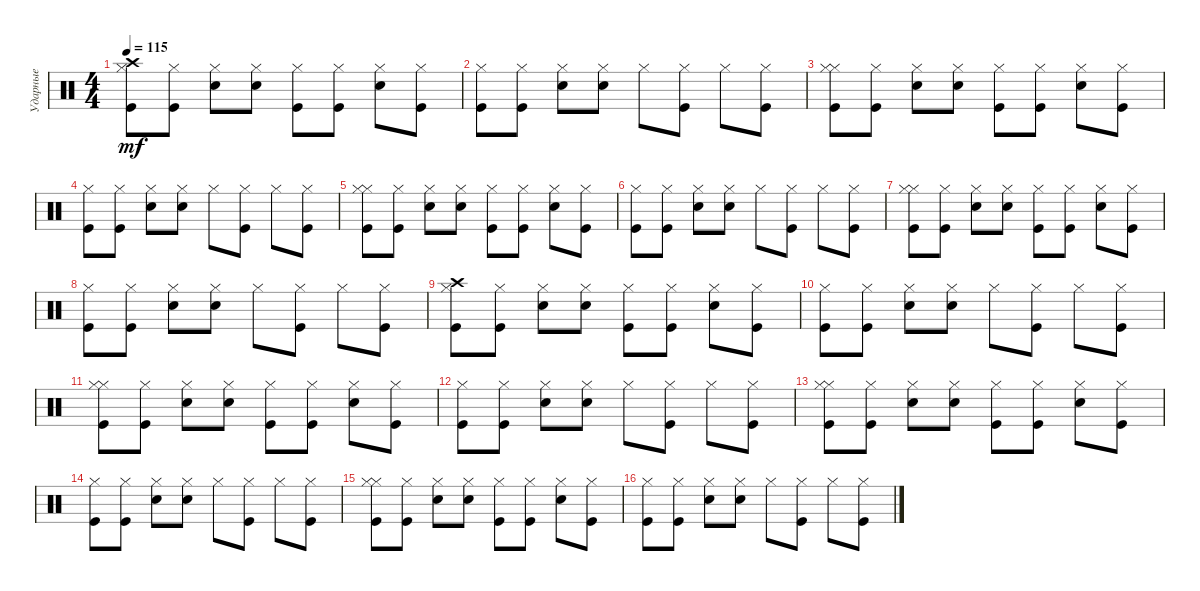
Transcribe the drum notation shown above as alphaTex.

\track ("Ударные" "Ударные") {instrument percussion}
\staff {score}
\articulation defaults
\ts (4 4)
\tempo 115
\clef neutral
\ks c
("Crash high (hit)" "Kick (hit)" "Hi-Hat (closed)").8{dy mf} ("Hi-Hat (closed)" "Kick (hit)").8 ("Snare (hit) 2" "Hi-Hat (closed)").8 ("Snare (hit) 2" "Hi-Hat (closed)").8 ("Hi-Hat (closed)" "Kick (hit)").8 ("Hi-Hat (closed)" "Kick (hit)").8 ("Hi-Hat (closed)" "Snare (hit) 2").8 ("Hi-Hat (closed)" "Kick (hit)").8 |
("Hi-Hat (closed)" "Kick (hit)").8 ("Hi-Hat (closed)" "Kick (hit)").8 ("Snare (hit) 2" "Hi-Hat (closed)").8 ("Snare (hit) 2" "Hi-Hat (closed)").8 "Hi-Hat (closed)".8 ("Hi-Hat (closed)" "Kick (hit)").8 "Hi-Hat (closed)".8 ("Hi-Hat (closed)" "Kick (hit)").8 |
("Hi-Hat (closed)" "Kick (hit)" "Hi-Hat (closed)").8 ("Hi-Hat (closed)" "Kick (hit)").8 ("Snare (hit) 2" "Hi-Hat (closed)").8 ("Snare (hit) 2" "Hi-Hat (closed)").8 ("Hi-Hat (closed)" "Kick (hit)").8 ("Hi-Hat (closed)" "Kick (hit)").8 ("Hi-Hat (closed)" "Snare (hit) 2").8 ("Hi-Hat (closed)" "Kick (hit)").8 |
("Hi-Hat (closed)" "Kick (hit)").8 ("Hi-Hat (closed)" "Kick (hit)").8 ("Snare (hit) 2" "Hi-Hat (closed)").8 ("Snare (hit) 2" "Hi-Hat (closed)").8 "Hi-Hat (closed)".8 ("Hi-Hat (closed)" "Kick (hit)").8 "Hi-Hat (closed)".8 ("Hi-Hat (closed)" "Kick (hit)").8 |
("Hi-Hat (closed)" "Kick (hit)" "Hi-Hat (closed)").8 ("Hi-Hat (closed)" "Kick (hit)").8 ("Snare (hit) 2" "Hi-Hat (closed)").8 ("Snare (hit) 2" "Hi-Hat (closed)").8 ("Hi-Hat (closed)" "Kick (hit)").8 ("Hi-Hat (closed)" "Kick (hit)").8 ("Hi-Hat (closed)" "Snare (hit) 2").8 ("Hi-Hat (closed)" "Kick (hit)").8 |
("Hi-Hat (closed)" "Kick (hit)").8 ("Hi-Hat (closed)" "Kick (hit)").8 ("Snare (hit) 2" "Hi-Hat (closed)").8 ("Snare (hit) 2" "Hi-Hat (closed)").8 "Hi-Hat (closed)".8 ("Hi-Hat (closed)" "Kick (hit)").8 "Hi-Hat (closed)".8 ("Hi-Hat (closed)" "Kick (hit)").8 |
("Hi-Hat (closed)" "Kick (hit)" "Hi-Hat (closed)").8 ("Hi-Hat (closed)" "Kick (hit)").8 ("Snare (hit) 2" "Hi-Hat (closed)").8 ("Snare (hit) 2" "Hi-Hat (closed)").8 ("Hi-Hat (closed)" "Kick (hit)").8 ("Hi-Hat (closed)" "Kick (hit)").8 ("Hi-Hat (closed)" "Snare (hit) 2").8 ("Hi-Hat (closed)" "Kick (hit)").8 |
("Hi-Hat (closed)" "Kick (hit)").8 ("Hi-Hat (closed)" "Kick (hit)").8 ("Snare (hit) 2" "Hi-Hat (closed)").8 ("Snare (hit) 2" "Hi-Hat (closed)").8 "Hi-Hat (closed)".8 ("Hi-Hat (closed)" "Kick (hit)").8 "Hi-Hat (closed)".8 ("Hi-Hat (closed)" "Kick (hit)").8 |
("Crash high (hit)" "Kick (hit)" "Hi-Hat (closed)").8 ("Hi-Hat (closed)" "Kick (hit)").8 ("Snare (hit) 2" "Hi-Hat (closed)").8 ("Snare (hit) 2" "Hi-Hat (closed)").8 ("Hi-Hat (closed)" "Kick (hit)").8 ("Hi-Hat (closed)" "Kick (hit)").8 ("Hi-Hat (closed)" "Snare (hit) 2").8 ("Hi-Hat (closed)" "Kick (hit)").8 |
("Hi-Hat (closed)" "Kick (hit)").8 ("Hi-Hat (closed)" "Kick (hit)").8 ("Snare (hit) 2" "Hi-Hat (closed)").8 ("Snare (hit) 2" "Hi-Hat (closed)").8 "Hi-Hat (closed)".8 ("Hi-Hat (closed)" "Kick (hit)").8 "Hi-Hat (closed)".8 ("Hi-Hat (closed)" "Kick (hit)").8 |
("Hi-Hat (closed)" "Kick (hit)" "Hi-Hat (closed)").8 ("Hi-Hat (closed)" "Kick (hit)").8 ("Snare (hit) 2" "Hi-Hat (closed)").8 ("Snare (hit) 2" "Hi-Hat (closed)").8 ("Hi-Hat (closed)" "Kick (hit)").8 ("Hi-Hat (closed)" "Kick (hit)").8 ("Hi-Hat (closed)" "Snare (hit) 2").8 ("Hi-Hat (closed)" "Kick (hit)").8 |
("Hi-Hat (closed)" "Kick (hit)").8 ("Hi-Hat (closed)" "Kick (hit)").8 ("Snare (hit) 2" "Hi-Hat (closed)").8 ("Snare (hit) 2" "Hi-Hat (closed)").8 "Hi-Hat (closed)".8 ("Hi-Hat (closed)" "Kick (hit)").8 "Hi-Hat (closed)".8 ("Hi-Hat (closed)" "Kick (hit)").8 |
("Hi-Hat (closed)" "Kick (hit)" "Hi-Hat (closed)").8 ("Hi-Hat (closed)" "Kick (hit)").8 ("Snare (hit) 2" "Hi-Hat (closed)").8 ("Snare (hit) 2" "Hi-Hat (closed)").8 ("Hi-Hat (closed)" "Kick (hit)").8 ("Hi-Hat (closed)" "Kick (hit)").8 ("Hi-Hat (closed)" "Snare (hit) 2").8 ("Hi-Hat (closed)" "Kick (hit)").8 |
("Hi-Hat (closed)" "Kick (hit)").8 ("Hi-Hat (closed)" "Kick (hit)").8 ("Snare (hit) 2" "Hi-Hat (closed)").8 ("Snare (hit) 2" "Hi-Hat (closed)").8 "Hi-Hat (closed)".8 ("Hi-Hat (closed)" "Kick (hit)").8 "Hi-Hat (closed)".8 ("Hi-Hat (closed)" "Kick (hit)").8 |
("Hi-Hat (closed)" "Kick (hit)" "Hi-Hat (closed)").8 ("Hi-Hat (closed)" "Kick (hit)").8 ("Snare (hit) 2" "Hi-Hat (closed)").8 ("Snare (hit) 2" "Hi-Hat (closed)").8 ("Hi-Hat (closed)" "Kick (hit)").8 ("Hi-Hat (closed)" "Kick (hit)").8 ("Hi-Hat (closed)" "Snare (hit) 2").8 ("Hi-Hat (closed)" "Kick (hit)").8 |
("Hi-Hat (closed)" "Kick (hit)").8 ("Hi-Hat (closed)" "Kick (hit)").8 ("Snare (hit) 2" "Hi-Hat (closed)").8 ("Snare (hit) 2" "Hi-Hat (closed)").8 "Hi-Hat (closed)".8 ("Hi-Hat (closed)" "Kick (hit)").8 "Hi-Hat (closed)".8 ("Hi-Hat (closed)" "Kick (hit)").8
